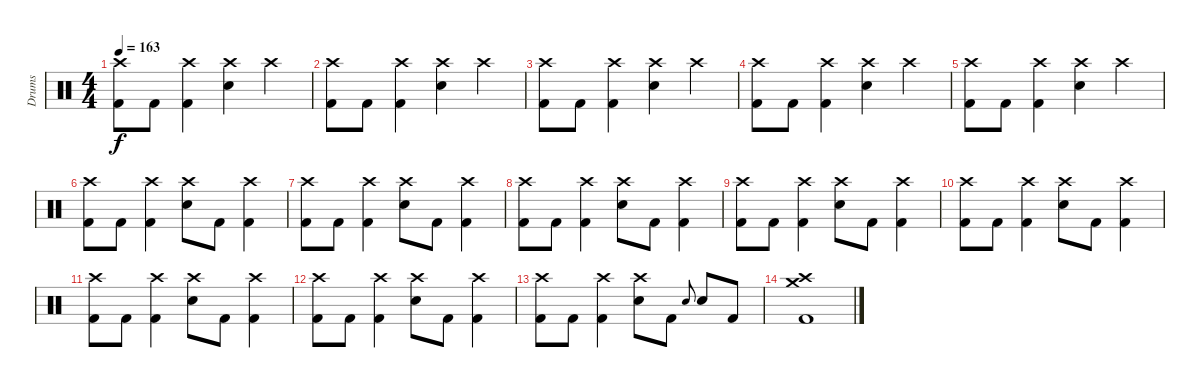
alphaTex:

\track ("Drums" "Drums") {instrument percussion}
\staff {score}
\articulation defaults
\ts (4 4)
\tempo 163
\clef neutral
\ks c
("Crash high (hit)" "Kick (hit) 2").8{dy f} "Kick (hit) 2".8 ("Crash high (hit)" "Kick (hit) 2").4 ("Crash high (hit)" "Electric Snare (hit)").4 "Crash high (hit)".4 |
("Crash high (hit)" "Kick (hit) 2").8 "Kick (hit) 2".8 ("Crash high (hit)" "Kick (hit) 2").4 ("Crash high (hit)" "Electric Snare (hit)").4 "Crash high (hit)".4 |
("Crash high (hit)" "Kick (hit) 2").8 "Kick (hit) 2".8 ("Crash high (hit)" "Kick (hit) 2").4 ("Crash high (hit)" "Electric Snare (hit)").4 "Crash high (hit)".4 |
("Crash high (hit)" "Kick (hit) 2").8 "Kick (hit) 2".8 ("Crash high (hit)" "Kick (hit) 2").4 ("Crash high (hit)" "Electric Snare (hit)").4 "Crash high (hit)".4 |
("Crash high (hit)" "Kick (hit) 2").8 "Kick (hit) 2".8 ("Crash high (hit)" "Kick (hit) 2").4 ("Crash high (hit)" "Electric Snare (hit)").4 "Crash high (hit)".4 |
("Crash high (hit)" "Kick (hit) 2").8 "Kick (hit) 2".8 ("Crash high (hit)" "Kick (hit) 2").4 ("Crash high (hit)" "Electric Snare (hit)").8 "Kick (hit) 2".8 ("Crash high (hit)" "Kick (hit) 2").4 |
("Crash high (hit)" "Kick (hit) 2").8 "Kick (hit) 2".8 ("Crash high (hit)" "Kick (hit) 2").4 ("Crash high (hit)" "Electric Snare (hit)").8 "Kick (hit) 2".8 ("Crash high (hit)" "Kick (hit) 2").4 |
("Crash high (hit)" "Kick (hit) 2").8 "Kick (hit) 2".8 ("Crash high (hit)" "Kick (hit) 2").4 ("Crash high (hit)" "Electric Snare (hit)").8 "Kick (hit) 2".8 ("Crash high (hit)" "Kick (hit) 2").4 |
("Crash high (hit)" "Kick (hit) 2").8 "Kick (hit) 2".8 ("Crash high (hit)" "Kick (hit) 2").4 ("Crash high (hit)" "Electric Snare (hit)").8 "Kick (hit) 2".8 ("Crash high (hit)" "Kick (hit) 2").4 |
("Crash high (hit)" "Kick (hit) 2").8 "Kick (hit) 2".8 ("Crash high (hit)" "Kick (hit) 2").4 ("Crash high (hit)" "Electric Snare (hit)").8 "Kick (hit) 2".8 ("Crash high (hit)" "Kick (hit) 2").4 |
("Crash high (hit)" "Kick (hit) 2").8 "Kick (hit) 2".8 ("Crash high (hit)" "Kick (hit) 2").4 ("Crash high (hit)" "Electric Snare (hit)").8 "Kick (hit) 2".8 ("Crash high (hit)" "Kick (hit) 2").4 |
("Crash high (hit)" "Kick (hit) 2").8 "Kick (hit) 2".8 ("Crash high (hit)" "Kick (hit) 2").4 ("Crash high (hit)" "Electric Snare (hit)").8 "Kick (hit) 2".8 ("Crash high (hit)" "Kick (hit) 2").4 |
("Crash high (hit)" "Kick (hit) 2").8 "Kick (hit) 2".8 ("Crash high (hit)" "Kick (hit) 2").4 ("Crash high (hit)" "Electric Snare (hit)").8 "Kick (hit) 2".8 "Electric Snare (hit)".8{gr onbeat} "Electric Snare (hit)".8 "Kick (hit) 2".8 |
("Crash medium (hit)" "Crash high (hit)" "Kick (hit) 2").1
